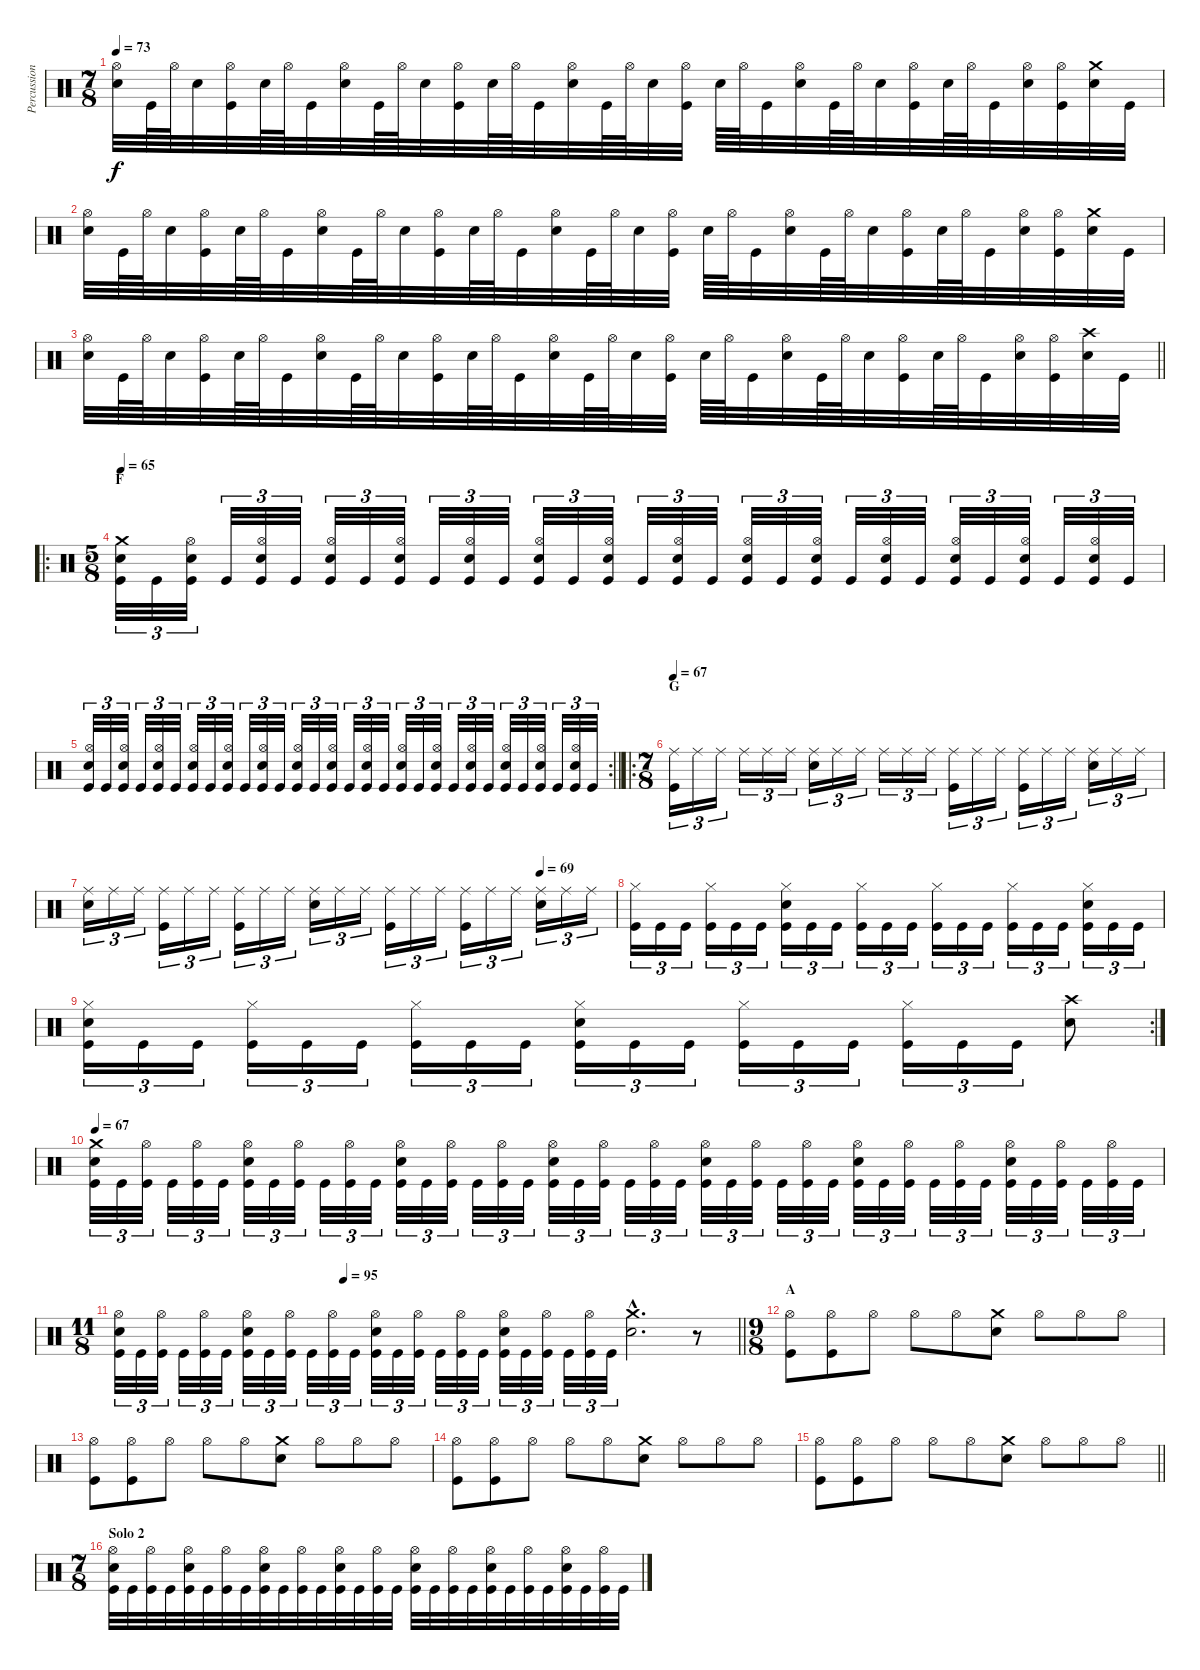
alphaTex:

\track ("Percussion" "Percussion") {instrument percussion}
\staff {score}
\articulation defaults
\ts (7 8)
\tempo 73
\clef neutral
\ks c
("Snare (hit) 2" "Hi-Hat (open)").32{dy f} "Kick (hit)".64 "Hi-Hat (open)".64 "Snare (hit) 2".32 ("Kick (hit)" "Hi-Hat (open)").32 "Snare (hit) 2".64 "Hi-Hat (open)".64 "Kick (hit)".32 ("Snare (hit) 2" "Hi-Hat (open)").32 "Kick (hit)".64 "Hi-Hat (open)".64 "Snare (hit) 2".32 ("Kick (hit)" "Hi-Hat (open)").32 "Snare (hit) 2".64 "Hi-Hat (open)".64 "Kick (hit)".32 ("Snare (hit) 2" "Hi-Hat (open)").32 "Kick (hit)".64 "Hi-Hat (open)".64 "Snare (hit) 2".32 ("Kick (hit)" "Hi-Hat (open)").32 "Snare (hit) 2".64 "Hi-Hat (open)".64 "Kick (hit)".32 ("Snare (hit) 2" "Hi-Hat (open)").32 "Kick (hit)".64 "Hi-Hat (open)".64 "Snare (hit) 2".32 ("Kick (hit)" "Hi-Hat (open)").32 "Snare (hit) 2".64 "Hi-Hat (open)".64 "Kick (hit)".32 ("Snare (hit) 2" "Hi-Hat (open)").32 ("Kick (hit)" "Hi-Hat (open)").32 ("Snare (hit) 2" "Crash medium (hit)").32 "Kick (hit)".32 |
("Snare (hit) 2" "Hi-Hat (open)").32 "Kick (hit)".64 "Hi-Hat (open)".64 "Snare (hit) 2".32 ("Kick (hit)" "Hi-Hat (open)").32 "Snare (hit) 2".64 "Hi-Hat (open)".64 "Kick (hit)".32 ("Snare (hit) 2" "Hi-Hat (open)").32 "Kick (hit)".64 "Hi-Hat (open)".64 "Snare (hit) 2".32 ("Kick (hit)" "Hi-Hat (open)").32 "Snare (hit) 2".64 "Hi-Hat (open)".64 "Kick (hit)".32 ("Snare (hit) 2" "Hi-Hat (open)").32 "Kick (hit)".64 "Hi-Hat (open)".64 "Snare (hit) 2".32 ("Kick (hit)" "Hi-Hat (open)").32 "Snare (hit) 2".64 "Hi-Hat (open)".64 "Kick (hit)".32 ("Snare (hit) 2" "Hi-Hat (open)").32 "Kick (hit)".64 "Hi-Hat (open)".64 "Snare (hit) 2".32 ("Kick (hit)" "Hi-Hat (open)").32 "Snare (hit) 2".64 "Hi-Hat (open)".64 "Kick (hit)".32 ("Snare (hit) 2" "Hi-Hat (open)").32 ("Kick (hit)" "Hi-Hat (open)").32 ("Snare (hit) 2" "Crash medium (hit)").32 "Kick (hit)".32 |
\barLineRight lightlight
("Snare (hit) 2" "Hi-Hat (open)").32 "Kick (hit)".64 "Hi-Hat (open)".64 "Snare (hit) 2".32 ("Kick (hit)" "Hi-Hat (open)").32 "Snare (hit) 2".64 "Hi-Hat (open)".64 "Kick (hit)".32 ("Snare (hit) 2" "Hi-Hat (open)").32 "Kick (hit)".64 "Hi-Hat (open)".64 "Snare (hit) 2".32 ("Kick (hit)" "Hi-Hat (open)").32 "Snare (hit) 2".64 "Hi-Hat (open)".64 "Kick (hit)".32 ("Snare (hit) 2" "Hi-Hat (open)").32 "Kick (hit)".64 "Hi-Hat (open)".64 "Snare (hit) 2".32 ("Kick (hit)" "Hi-Hat (open)").32 "Snare (hit) 2".64 "Hi-Hat (open)".64 "Kick (hit)".32 ("Snare (hit) 2" "Hi-Hat (open)").32 "Kick (hit)".64 "Hi-Hat (open)".64 "Snare (hit) 2".32 ("Kick (hit)" "Hi-Hat (open)").32 "Snare (hit) 2".64 "Hi-Hat (open)".64 "Kick (hit)".32 ("Snare (hit) 2" "Hi-Hat (open)").32 ("Kick (hit)" "Hi-Hat (open)").32 ("Snare (hit) 2" "Crash high (hit)").32 "Kick (hit)".32 |
\ro
\ts (5 8)
\section ("" "F")
\tempo 65
("Kick (hit)" "Snare (hit) 2" "Crash medium (hit)").32{tu (3 2)} "Kick (hit)".32{tu (3 2)} ("Kick (hit)" "Snare (hit) 2" "Hi-Hat (open)").32{tu (3 2)} "Kick (hit)".32{tu (3 2)} ("Kick (hit)" "Snare (hit) 2" "Hi-Hat (open)").32{tu (3 2)} "Kick (hit)".32{tu (3 2)} ("Kick (hit)" "Snare (hit) 2" "Hi-Hat (open)").32{tu (3 2)} "Kick (hit)".32{tu (3 2)} ("Kick (hit)" "Snare (hit) 2" "Hi-Hat (open)").32{tu (3 2)} "Kick (hit)".32{tu (3 2)} ("Kick (hit)" "Snare (hit) 2" "Hi-Hat (open)").32{tu (3 2)} "Kick (hit)".32{tu (3 2)} ("Kick (hit)" "Snare (hit) 2" "Hi-Hat (open)").32{tu (3 2)} "Kick (hit)".32{tu (3 2)} ("Kick (hit)" "Snare (hit) 2" "Hi-Hat (open)").32{tu (3 2)} "Kick (hit)".32{tu (3 2)} ("Kick (hit)" "Snare (hit) 2" "Hi-Hat (open)").32{tu (3 2)} "Kick (hit)".32{tu (3 2)} ("Kick (hit)" "Snare (hit) 2" "Hi-Hat (open)").32{tu (3 2)} "Kick (hit)".32{tu (3 2)} ("Kick (hit)" "Snare (hit) 2" "Hi-Hat (open)").32{tu (3 2)} "Kick (hit)".32{tu (3 2)} ("Kick (hit)" "Snare (hit) 2" "Hi-Hat (open)").32{tu (3 2)} "Kick (hit)".32{tu (3 2)} ("Kick (hit)" "Snare (hit) 2" "Hi-Hat (open)").32{tu (3 2)} "Kick (hit)".32{tu (3 2)} ("Kick (hit)" "Snare (hit) 2" "Hi-Hat (open)").32{tu (3 2)} "Kick (hit)".32{tu (3 2)} ("Kick (hit)" "Snare (hit) 2" "Hi-Hat (open)").32{tu (3 2)} "Kick (hit)".32{tu (3 2)} |
\rc 2
\barLineRight lightlight
("Kick (hit)" "Snare (hit) 2" "Hi-Hat (open)").32{tu (3 2)} "Kick (hit)".32{tu (3 2)} ("Kick (hit)" "Snare (hit) 2" "Hi-Hat (open)").32{tu (3 2)} "Kick (hit)".32{tu (3 2)} ("Kick (hit)" "Snare (hit) 2" "Hi-Hat (open)").32{tu (3 2)} "Kick (hit)".32{tu (3 2)} ("Kick (hit)" "Snare (hit) 2" "Hi-Hat (open)").32{tu (3 2)} "Kick (hit)".32{tu (3 2)} ("Kick (hit)" "Snare (hit) 2" "Hi-Hat (open)").32{tu (3 2)} "Kick (hit)".32{tu (3 2)} ("Kick (hit)" "Snare (hit) 2" "Hi-Hat (open)").32{tu (3 2)} "Kick (hit)".32{tu (3 2)} ("Kick (hit)" "Snare (hit) 2" "Hi-Hat (open)").32{tu (3 2)} "Kick (hit)".32{tu (3 2)} ("Kick (hit)" "Snare (hit) 2" "Hi-Hat (open)").32{tu (3 2)} "Kick (hit)".32{tu (3 2)} ("Kick (hit)" "Snare (hit) 2" "Hi-Hat (open)").32{tu (3 2)} "Kick (hit)".32{tu (3 2)} ("Kick (hit)" "Snare (hit) 2" "Hi-Hat (open)").32{tu (3 2)} "Kick (hit)".32{tu (3 2)} ("Kick (hit)" "Snare (hit) 2" "Hi-Hat (open)").32{tu (3 2)} "Kick (hit)".32{tu (3 2)} ("Kick (hit)" "Snare (hit) 2" "Hi-Hat (open)").32{tu (3 2)} "Kick (hit)".32{tu (3 2)} ("Kick (hit)" "Snare (hit) 2" "Hi-Hat (open)").32{tu (3 2)} "Kick (hit)".32{tu (3 2)} ("Kick (hit)" "Snare (hit) 2" "Hi-Hat (open)").32{tu (3 2)} "Kick (hit)".32{tu (3 2)} ("Kick (hit)" "Snare (hit) 2" "Hi-Hat (open)").32{tu (3 2)} "Kick (hit)".32{tu (3 2)} |
\ro
\ts (7 8)
\section ("" "G")
\tempo 67
("Kick (hit)" "Ride (middle)").16{tu (3 2)} "Ride (middle)".16{tu (3 2)} "Ride (middle)".16{tu (3 2)} "Ride (middle)".16{tu (3 2)} "Ride (middle)".16{tu (3 2)} "Ride (middle)".16{tu (3 2)} ("Snare (hit) 2" "Ride (middle)").16{tu (3 2)} "Ride (middle)".16{tu (3 2)} "Ride (middle)".16{tu (3 2)} "Ride (middle)".16{tu (3 2)} "Ride (middle)".16{tu (3 2)} "Ride (middle)".16{tu (3 2)} ("Kick (hit)" "Ride (middle)").16{tu (3 2)} "Ride (middle)".16{tu (3 2)} "Ride (middle)".16{tu (3 2)} ("Kick (hit)" "Ride (middle)").16{tu (3 2)} "Ride (middle)".16{tu (3 2)} "Ride (middle)".16{tu (3 2)} ("Snare (hit) 2" "Ride (middle)").16{tu (3 2)} "Ride (middle)".16{tu (3 2)} "Ride (middle)".16{tu (3 2)} |
\tempo (69 0.8571428571428571)
("Snare (hit) 2" "Ride (middle)").16{tu (3 2)} "Ride (middle)".16{tu (3 2)} "Ride (middle)".16{tu (3 2)} ("Kick (hit)" "Ride (middle)").16{tu (3 2)} "Ride (middle)".16{tu (3 2)} "Ride (middle)".16{tu (3 2)} ("Kick (hit)" "Ride (middle)").16{tu (3 2)} "Ride (middle)".16{tu (3 2)} "Ride (middle)".16{tu (3 2)} ("Snare (hit) 2" "Ride (middle)").16{tu (3 2)} "Ride (middle)".16{tu (3 2)} "Ride (middle)".16{tu (3 2)} ("Kick (hit)" "Ride (middle)").16{tu (3 2)} "Ride (middle)".16{tu (3 2)} "Ride (middle)".16{tu (3 2)} ("Kick (hit)" "Ride (middle)").16{tu (3 2)} "Ride (middle)".16{tu (3 2)} "Ride (middle)".16{tu (3 2)} ("Snare (hit) 2" "Ride (middle)").16{tu (3 2)} "Ride (middle)".16{tu (3 2)} "Ride (middle)".16{tu (3 2)} |
("Kick (hit)" "Hi-Hat (closed)").16{tu (3 2)} "Kick (hit)".16{tu (3 2)} "Kick (hit)".16{tu (3 2)} ("Kick (hit)" "Hi-Hat (closed)").16{tu (3 2)} "Kick (hit)".16{tu (3 2)} "Kick (hit)".16{tu (3 2)} ("Kick (hit)" "Snare (hit) 2" "Hi-Hat (closed)").16{tu (3 2)} "Kick (hit)".16{tu (3 2)} "Kick (hit)".16{tu (3 2)} ("Kick (hit)" "Hi-Hat (closed)").16{tu (3 2)} "Kick (hit)".16{tu (3 2)} "Kick (hit)".16{tu (3 2)} ("Kick (hit)" "Hi-Hat (closed)").16{tu (3 2)} "Kick (hit)".16{tu (3 2)} "Kick (hit)".16{tu (3 2)} ("Kick (hit)" "Hi-Hat (closed)").16{tu (3 2)} "Kick (hit)".16{tu (3 2)} "Kick (hit)".16{tu (3 2)} ("Kick (hit)" "Snare (hit) 2" "Hi-Hat (closed)").16{tu (3 2)} "Kick (hit)".16{tu (3 2)} "Kick (hit)".16{tu (3 2)} |
\rc 2
("Kick (hit)" "Snare (hit) 2" "Hi-Hat (closed)").16{tu (3 2)} "Kick (hit)".16{tu (3 2)} "Kick (hit)".16{tu (3 2)} ("Kick (hit)" "Hi-Hat (closed)").16{tu (3 2)} "Kick (hit)".16{tu (3 2)} "Kick (hit)".16{tu (3 2)} ("Kick (hit)" "Hi-Hat (closed)").16{tu (3 2)} "Kick (hit)".16{tu (3 2)} "Kick (hit)".16{tu (3 2)} ("Kick (hit)" "Snare (hit) 2" "Hi-Hat (closed)").16{tu (3 2)} "Kick (hit)".16{tu (3 2)} "Kick (hit)".16{tu (3 2)} ("Kick (hit)" "Hi-Hat (closed)").16{tu (3 2)} "Kick (hit)".16{tu (3 2)} "Kick (hit)".16{tu (3 2)} ("Kick (hit)" "Hi-Hat (closed)").16{tu (3 2)} "Kick (hit)".16{tu (3 2)} "Kick (hit)".16{tu (3 2)} ("Snare (hit) 2" "Crash high (hit)").8 |
\tempo 67
("Kick (hit)" "Snare (hit) 2" "Crash medium (hit)").32{tu (3 2)} "Kick (hit)".32{tu (3 2)} ("Kick (hit)" "Hi-Hat (open)").32{tu (3 2)} "Kick (hit)".32{tu (3 2)} ("Kick (hit)" "Hi-Hat (open)").32{tu (3 2)} "Kick (hit)".32{tu (3 2)} ("Kick (hit)" "Snare (hit) 2" "Hi-Hat (open)").32{tu (3 2)} "Kick (hit)".32{tu (3 2)} ("Kick (hit)" "Hi-Hat (open)").32{tu (3 2)} "Kick (hit)".32{tu (3 2)} ("Kick (hit)" "Hi-Hat (open)").32{tu (3 2)} "Kick (hit)".32{tu (3 2)} ("Kick (hit)" "Snare (hit) 2" "Hi-Hat (open)").32{tu (3 2)} "Kick (hit)".32{tu (3 2)} ("Kick (hit)" "Hi-Hat (open)").32{tu (3 2)} "Kick (hit)".32{tu (3 2)} ("Kick (hit)" "Hi-Hat (open)").32{tu (3 2)} "Kick (hit)".32{tu (3 2)} ("Kick (hit)" "Snare (hit) 2" "Hi-Hat (open)").32{tu (3 2)} "Kick (hit)".32{tu (3 2)} ("Kick (hit)" "Hi-Hat (open)").32{tu (3 2)} "Kick (hit)".32{tu (3 2)} ("Kick (hit)" "Hi-Hat (open)").32{tu (3 2)} "Kick (hit)".32{tu (3 2)} ("Kick (hit)" "Snare (hit) 2" "Hi-Hat (open)").32{tu (3 2)} "Kick (hit)".32{tu (3 2)} ("Kick (hit)" "Hi-Hat (open)").32{tu (3 2)} "Kick (hit)".32{tu (3 2)} ("Kick (hit)" "Hi-Hat (open)").32{tu (3 2)} "Kick (hit)".32{tu (3 2)} ("Kick (hit)" "Snare (hit) 2" "Hi-Hat (open)").32{tu (3 2)} "Kick (hit)".32{tu (3 2)} ("Kick (hit)" "Hi-Hat (open)").32{tu (3 2)} "Kick (hit)".32{tu (3 2)} ("Kick (hit)" "Hi-Hat (open)").32{tu (3 2)} "Kick (hit)".32{tu (3 2)} ("Kick (hit)" "Snare (hit) 2" "Hi-Hat (open)").32{tu (3 2)} "Kick (hit)".32{tu (3 2)} ("Kick (hit)" "Hi-Hat (open)").32{tu (3 2)} "Kick (hit)".32{tu (3 2)} ("Kick (hit)" "Hi-Hat (open)").32{tu (3 2)} "Kick (hit)".32{tu (3 2)} |
\ts (11 8)
\tempo (95 0.36363636363636365)
\barLineRight lightlight
("Kick (hit)" "Snare (hit) 2" "Hi-Hat (open)").32{tu (3 2)} "Kick (hit)".32{tu (3 2)} ("Kick (hit)" "Hi-Hat (open)").32{tu (3 2)} "Kick (hit)".32{tu (3 2)} ("Kick (hit)" "Hi-Hat (open)").32{tu (3 2)} "Kick (hit)".32{tu (3 2)} ("Kick (hit)" "Snare (hit) 2" "Hi-Hat (open)").32{tu (3 2)} "Kick (hit)".32{tu (3 2)} ("Kick (hit)" "Hi-Hat (open)").32{tu (3 2)} "Kick (hit)".32{tu (3 2)} ("Kick (hit)" "Hi-Hat (open)").32{tu (3 2)} "Kick (hit)".32{tu (3 2)} ("Kick (hit)" "Snare (hit) 2" "Hi-Hat (open)").32{tu (3 2)} "Kick (hit)".32{tu (3 2)} ("Kick (hit)" "Hi-Hat (open)").32{tu (3 2)} "Kick (hit)".32{tu (3 2)} ("Kick (hit)" "Hi-Hat (open)").32{tu (3 2)} "Kick (hit)".32{tu (3 2)} ("Kick (hit)" "Snare (hit) 2" "Hi-Hat (open)").32{tu (3 2)} "Kick (hit)".32{tu (3 2)} ("Kick (hit)" "Hi-Hat (open)").32{tu (3 2)} "Kick (hit)".32{tu (3 2)} ("Kick (hit)" "Hi-Hat (open)").32{tu (3 2)} "Kick (hit)".32{tu (3 2)} ("Snare (hit) 2"{hac} "Crash medium (hit)"{hac}).2{d} r.8 |
\ts (9 8)
\section ("" "A")
("Kick (hit)" "Hi-Hat (open)").8 ("Kick (hit)" "Hi-Hat (open)").8 "Hi-Hat (open)".8 "Hi-Hat (open)".8 "Hi-Hat (open)".8 ("Snare (hit) 2" "Crash medium (hit)").8 "Hi-Hat (open)".8 "Hi-Hat (open)".8 "Hi-Hat (open)".8 |
("Kick (hit)" "Hi-Hat (open)").8 ("Kick (hit)" "Hi-Hat (open)").8 "Hi-Hat (open)".8 "Hi-Hat (open)".8 "Hi-Hat (open)".8 ("Snare (hit) 2" "Crash medium (hit)").8 "Hi-Hat (open)".8 "Hi-Hat (open)".8 "Hi-Hat (open)".8 |
("Kick (hit)" "Hi-Hat (open)").8 ("Kick (hit)" "Hi-Hat (open)").8 "Hi-Hat (open)".8 "Hi-Hat (open)".8 "Hi-Hat (open)".8 ("Snare (hit) 2" "Crash medium (hit)").8 "Hi-Hat (open)".8 "Hi-Hat (open)".8 "Hi-Hat (open)".8 |
\barLineRight lightlight
("Kick (hit)" "Hi-Hat (open)").8 ("Kick (hit)" "Hi-Hat (open)").8 "Hi-Hat (open)".8 "Hi-Hat (open)".8 "Hi-Hat (open)".8 ("Snare (hit) 2" "Crash medium (hit)").8 "Hi-Hat (open)".8 "Hi-Hat (open)".8 "Hi-Hat (open)".8 |
\ts (7 8)
\section ("" "Solo 2")
("Kick (hit)" "Snare (hit) 2" "Hi-Hat (open)").32 "Kick (hit)".32 ("Kick (hit)" "Hi-Hat (open)").32 "Kick (hit)".32 ("Kick (hit)" "Snare (hit) 2" "Hi-Hat (open)").32 "Kick (hit)".32 ("Kick (hit)" "Hi-Hat (open)").32 "Kick (hit)".32 ("Kick (hit)" "Snare (hit) 2" "Hi-Hat (open)").32 "Kick (hit)".32 ("Kick (hit)" "Hi-Hat (open)").32 "Kick (hit)".32 ("Kick (hit)" "Snare (hit) 2" "Hi-Hat (open)").32 "Kick (hit)".32 ("Kick (hit)" "Hi-Hat (open)").32 "Kick (hit)".32 ("Kick (hit)" "Snare (hit) 2" "Hi-Hat (open)").32 "Kick (hit)".32 ("Kick (hit)" "Hi-Hat (open)").32 "Kick (hit)".32 ("Kick (hit)" "Snare (hit) 2" "Hi-Hat (open)").32 "Kick (hit)".32 ("Kick (hit)" "Hi-Hat (open)").32 "Kick (hit)".32 ("Kick (hit)" "Snare (hit) 2" "Hi-Hat (open)").32 "Kick (hit)".32 ("Kick (hit)" "Hi-Hat (open)").32 "Kick (hit)".32
